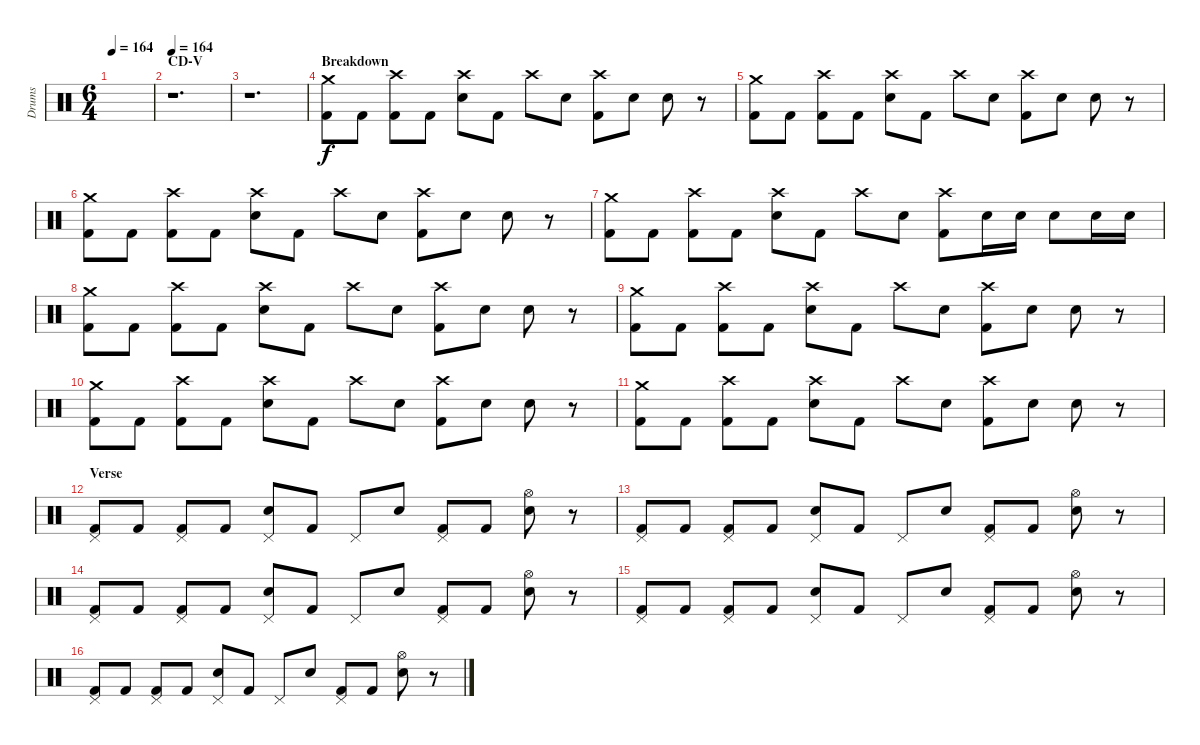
\track ("Drums" "Drums") {instrument percussion}
\staff {score}
\articulation defaults
\ts (6 4)
\tempo 164
\clef neutral
\ks c
|
\section ("" "CD-V")
\tempo 164
r.1{d volume 13} |
r.1{d} |
\section ("" "Breakdown")
("Crash medium (hit)" "Kick (hit) 2").8 "Kick (hit) 2".8 ("Crash high (hit)" "Kick (hit) 2").8 "Kick (hit) 2".8 ("Crash high (hit)" "Electric Snare (hit)").8 "Kick (hit) 2".8 "Crash high (hit)".8 "Electric Snare (hit)".8 ("Crash high (hit)" "Kick (hit) 2").8 "Electric Snare (hit)".8 "Electric Snare (hit)".8 r.8 |
("Crash medium (hit)" "Kick (hit) 2").8 "Kick (hit) 2".8 ("Crash high (hit)" "Kick (hit) 2").8 "Kick (hit) 2".8 ("Crash high (hit)" "Electric Snare (hit)").8 "Kick (hit) 2".8 "Crash high (hit)".8 "Electric Snare (hit)".8 ("Crash high (hit)" "Kick (hit) 2").8 "Electric Snare (hit)".8 "Electric Snare (hit)".8 r.8 |
("Crash medium (hit)" "Kick (hit) 2").8 "Kick (hit) 2".8 ("Crash high (hit)" "Kick (hit) 2").8 "Kick (hit) 2".8 ("Crash high (hit)" "Electric Snare (hit)").8 "Kick (hit) 2".8 "Crash high (hit)".8 "Electric Snare (hit)".8 ("Crash high (hit)" "Kick (hit) 2").8 "Electric Snare (hit)".8 "Electric Snare (hit)".8 r.8 |
("Crash medium (hit)" "Kick (hit) 2").8 "Kick (hit) 2".8 ("Crash high (hit)" "Kick (hit) 2").8 "Kick (hit) 2".8 ("Crash high (hit)" "Electric Snare (hit)").8 "Kick (hit) 2".8 "Crash high (hit)".8 "Electric Snare (hit)".8 ("Crash high (hit)" "Kick (hit) 2").8 "Electric Snare (hit)".16 "Electric Snare (hit)".16 "Electric Snare (hit)".8 "Electric Snare (hit)".16 "Electric Snare (hit)".16 |
("Crash medium (hit)" "Kick (hit) 2").8 "Kick (hit) 2".8 ("Crash high (hit)" "Kick (hit) 2").8 "Kick (hit) 2".8 ("Crash high (hit)" "Electric Snare (hit)").8 "Kick (hit) 2".8 "Crash high (hit)".8 "Electric Snare (hit)".8 ("Crash high (hit)" "Kick (hit) 2").8 "Electric Snare (hit)".8 "Electric Snare (hit)".8 r.8 |
("Crash medium (hit)" "Kick (hit) 2").8 "Kick (hit) 2".8 ("Crash high (hit)" "Kick (hit) 2").8 "Kick (hit) 2".8 ("Crash high (hit)" "Electric Snare (hit)").8 "Kick (hit) 2".8 "Crash high (hit)".8 "Electric Snare (hit)".8 ("Crash high (hit)" "Kick (hit) 2").8 "Electric Snare (hit)".8 "Electric Snare (hit)".8 r.8 |
("Crash medium (hit)" "Kick (hit) 2").8 "Kick (hit) 2".8 ("Crash high (hit)" "Kick (hit) 2").8 "Kick (hit) 2".8 ("Crash high (hit)" "Electric Snare (hit)").8 "Kick (hit) 2".8 "Crash high (hit)".8 "Electric Snare (hit)".8 ("Crash high (hit)" "Kick (hit) 2").8 "Electric Snare (hit)".8 "Electric Snare (hit)".8 r.8 |
("Crash medium (hit)" "Kick (hit) 2").8 "Kick (hit) 2".8 ("Crash high (hit)" "Kick (hit) 2").8 "Kick (hit) 2".8 ("Crash high (hit)" "Electric Snare (hit)").8 "Kick (hit) 2".8 "Crash high (hit)".8 "Electric Snare (hit)".8 ("Crash high (hit)" "Kick (hit) 2").8 "Electric Snare (hit)".8 "Electric Snare (hit)".8 r.8 |
\section ("" "Verse")
("Pedal Hi-Hat (hit)" "Kick (hit) 2").8 "Kick (hit) 2".8 ("Pedal Hi-Hat (hit)" "Kick (hit) 2").8 "Kick (hit) 2".8 ("Pedal Hi-Hat (hit)" "Electric Snare (hit)").8 "Kick (hit) 2".8 "Pedal Hi-Hat (hit)".8 "Electric Snare (hit)".8 ("Pedal Hi-Hat (hit)" "Kick (hit) 2").8 "Kick (hit) 2".8 ("Hi-Hat (open)" "Electric Snare (hit)").8 r.8 |
("Pedal Hi-Hat (hit)" "Kick (hit) 2").8 "Kick (hit) 2".8 ("Pedal Hi-Hat (hit)" "Kick (hit) 2").8 "Kick (hit) 2".8 ("Pedal Hi-Hat (hit)" "Electric Snare (hit)").8 "Kick (hit) 2".8 "Pedal Hi-Hat (hit)".8 "Electric Snare (hit)".8 ("Pedal Hi-Hat (hit)" "Kick (hit) 2").8 "Kick (hit) 2".8 ("Hi-Hat (open)" "Electric Snare (hit)").8 r.8 |
("Pedal Hi-Hat (hit)" "Kick (hit) 2").8 "Kick (hit) 2".8 ("Pedal Hi-Hat (hit)" "Kick (hit) 2").8 "Kick (hit) 2".8 ("Pedal Hi-Hat (hit)" "Electric Snare (hit)").8 "Kick (hit) 2".8 "Pedal Hi-Hat (hit)".8 "Electric Snare (hit)".8 ("Pedal Hi-Hat (hit)" "Kick (hit) 2").8 "Kick (hit) 2".8 ("Hi-Hat (open)" "Electric Snare (hit)").8 r.8 |
("Pedal Hi-Hat (hit)" "Kick (hit) 2").8 "Kick (hit) 2".8 ("Pedal Hi-Hat (hit)" "Kick (hit) 2").8 "Kick (hit) 2".8 ("Pedal Hi-Hat (hit)" "Electric Snare (hit)").8 "Kick (hit) 2".8 "Pedal Hi-Hat (hit)".8 "Electric Snare (hit)".8 ("Pedal Hi-Hat (hit)" "Kick (hit) 2").8 "Kick (hit) 2".8 ("Hi-Hat (open)" "Electric Snare (hit)").8 r.8 |
("Pedal Hi-Hat (hit)" "Kick (hit) 2").8 "Kick (hit) 2".8 ("Pedal Hi-Hat (hit)" "Kick (hit) 2").8 "Kick (hit) 2".8 ("Pedal Hi-Hat (hit)" "Electric Snare (hit)").8 "Kick (hit) 2".8 "Pedal Hi-Hat (hit)".8 "Electric Snare (hit)".8 ("Pedal Hi-Hat (hit)" "Kick (hit) 2").8 "Kick (hit) 2".8 ("Hi-Hat (open)" "Electric Snare (hit)").8 r.8
